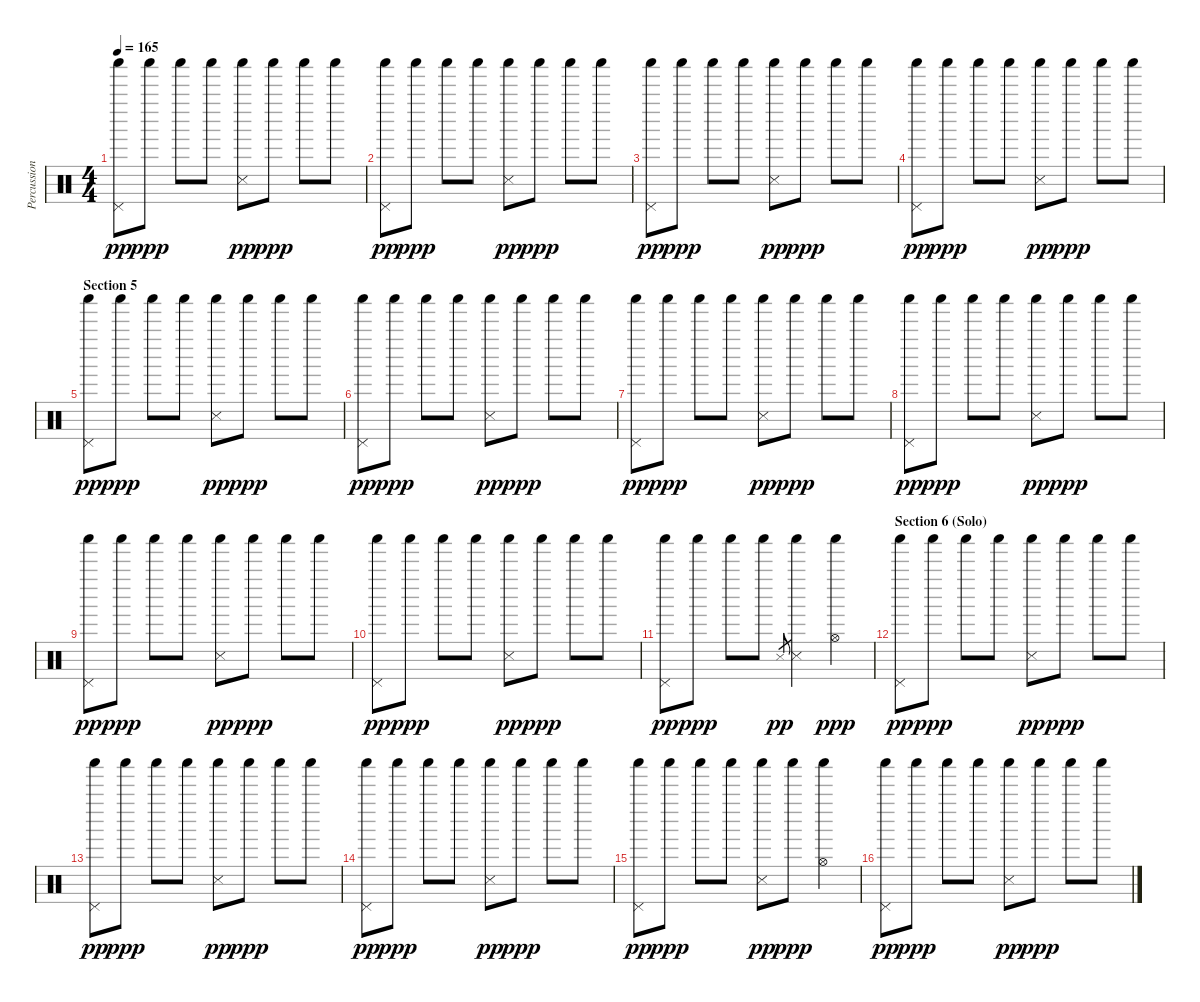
\track ("Percussion" "Percussion") {instrument percussion}
\staff {score}
\articulation defaults
\ts (4 4)
\tempo 165
\clef neutral
\ks c
("Pedal Hi-Hat (hit)" "Shaker (hit)").8{dy pp} "Shaker (hit)".8{dy ppp} "Shaker (hit)".8 "Shaker (hit)".8 ("Snare (side stick) 3" "Shaker (hit)").8{dy pp} "Shaker (hit)".8{dy ppp} "Shaker (hit)".8 "Shaker (hit)".8 |
("Pedal Hi-Hat (hit)" "Shaker (hit)").8{dy pp} "Shaker (hit)".8{dy ppp} "Shaker (hit)".8 "Shaker (hit)".8 ("Snare (side stick) 3" "Shaker (hit)").8{dy pp} "Shaker (hit)".8{dy ppp} "Shaker (hit)".8 "Shaker (hit)".8 |
("Pedal Hi-Hat (hit)" "Shaker (hit)").8{dy pp} "Shaker (hit)".8{dy ppp} "Shaker (hit)".8 "Shaker (hit)".8 ("Snare (side stick) 3" "Shaker (hit)").8{dy pp} "Shaker (hit)".8{dy ppp} "Shaker (hit)".8 "Shaker (hit)".8 |
("Pedal Hi-Hat (hit)" "Shaker (hit)").8{dy pp} "Shaker (hit)".8{dy ppp} "Shaker (hit)".8 "Shaker (hit)".8 ("Snare (side stick) 3" "Shaker (hit)").8{dy pp} "Shaker (hit)".8{dy ppp} "Shaker (hit)".8 "Shaker (hit)".8 |
\section ("" "Section 5")
("Pedal Hi-Hat (hit)" "Shaker (hit)").8{dy pp} "Shaker (hit)".8{dy ppp} "Shaker (hit)".8 "Shaker (hit)".8 ("Snare (side stick) 3" "Shaker (hit)").8{dy pp} "Shaker (hit)".8{dy ppp} "Shaker (hit)".8 "Shaker (hit)".8 |
("Pedal Hi-Hat (hit)" "Shaker (hit)").8{dy pp} "Shaker (hit)".8{dy ppp} "Shaker (hit)".8 "Shaker (hit)".8 ("Snare (side stick) 3" "Shaker (hit)").8{dy pp} "Shaker (hit)".8{dy ppp} "Shaker (hit)".8 "Shaker (hit)".8 |
("Pedal Hi-Hat (hit)" "Shaker (hit)").8{dy pp} "Shaker (hit)".8{dy ppp} "Shaker (hit)".8 "Shaker (hit)".8 ("Snare (side stick) 3" "Shaker (hit)").8{dy pp} "Shaker (hit)".8{dy ppp} "Shaker (hit)".8 "Shaker (hit)".8 |
("Pedal Hi-Hat (hit)" "Shaker (hit)").8{dy pp} "Shaker (hit)".8{dy ppp} "Shaker (hit)".8 "Shaker (hit)".8 ("Snare (side stick) 3" "Shaker (hit)").8{dy pp} "Shaker (hit)".8{dy ppp} "Shaker (hit)".8 "Shaker (hit)".8 |
("Pedal Hi-Hat (hit)" "Shaker (hit)").8{dy pp} "Shaker (hit)".8{dy ppp} "Shaker (hit)".8 "Shaker (hit)".8 ("Snare (side stick) 3" "Shaker (hit)").8{dy pp} "Shaker (hit)".8{dy ppp} "Shaker (hit)".8 "Shaker (hit)".8 |
("Pedal Hi-Hat (hit)" "Shaker (hit)").8{dy pp} "Shaker (hit)".8{dy ppp} "Shaker (hit)".8 "Shaker (hit)".8 ("Snare (side stick) 3" "Shaker (hit)").8{dy pp} "Shaker (hit)".8{dy ppp} "Shaker (hit)".8 "Shaker (hit)".8 |
("Pedal Hi-Hat (hit)" "Shaker (hit)").8{dy pp} "Shaker (hit)".8{dy ppp} "Shaker (hit)".8 "Shaker (hit)".8 "Snare (side stick) 3".8{gr dy pp} ("Snare (side stick) 3" "Shaker (hit)").4 ("Hi-Hat (open)" "Shaker (hit)").4{dy ppp} |
\section ("" "Section 6 (Solo)")
("Pedal Hi-Hat (hit)" "Shaker (hit)").8{dy pp} "Shaker (hit)".8{dy ppp} "Shaker (hit)".8 "Shaker (hit)".8 ("Snare (side stick) 3" "Shaker (hit)").8{dy pp} "Shaker (hit)".8{dy ppp} "Shaker (hit)".8 "Shaker (hit)".8 |
("Pedal Hi-Hat (hit)" "Shaker (hit)").8{dy pp} "Shaker (hit)".8{dy ppp} "Shaker (hit)".8 "Shaker (hit)".8 ("Snare (side stick) 3" "Shaker (hit)").8{dy pp} "Shaker (hit)".8{dy ppp} "Shaker (hit)".8 "Shaker (hit)".8 |
("Pedal Hi-Hat (hit)" "Shaker (hit)").8{dy pp} "Shaker (hit)".8{dy ppp} "Shaker (hit)".8 "Shaker (hit)".8 ("Snare (side stick) 3" "Shaker (hit)").8{dy pp} "Shaker (hit)".8{dy ppp} "Shaker (hit)".8 "Shaker (hit)".8 |
("Pedal Hi-Hat (hit)" "Shaker (hit)").8{dy pp} "Shaker (hit)".8{dy ppp} "Shaker (hit)".8 "Shaker (hit)".8 ("Snare (side stick) 3" "Shaker (hit)").8{dy pp} "Shaker (hit)".8{dy ppp} ("Hi-Hat (open)" "Shaker (hit)").4 |
("Pedal Hi-Hat (hit)" "Shaker (hit)").8{dy pp} "Shaker (hit)".8{dy ppp} "Shaker (hit)".8 "Shaker (hit)".8 ("Snare (side stick) 3" "Shaker (hit)").8{dy pp} "Shaker (hit)".8{dy ppp} "Shaker (hit)".8 "Shaker (hit)".8
